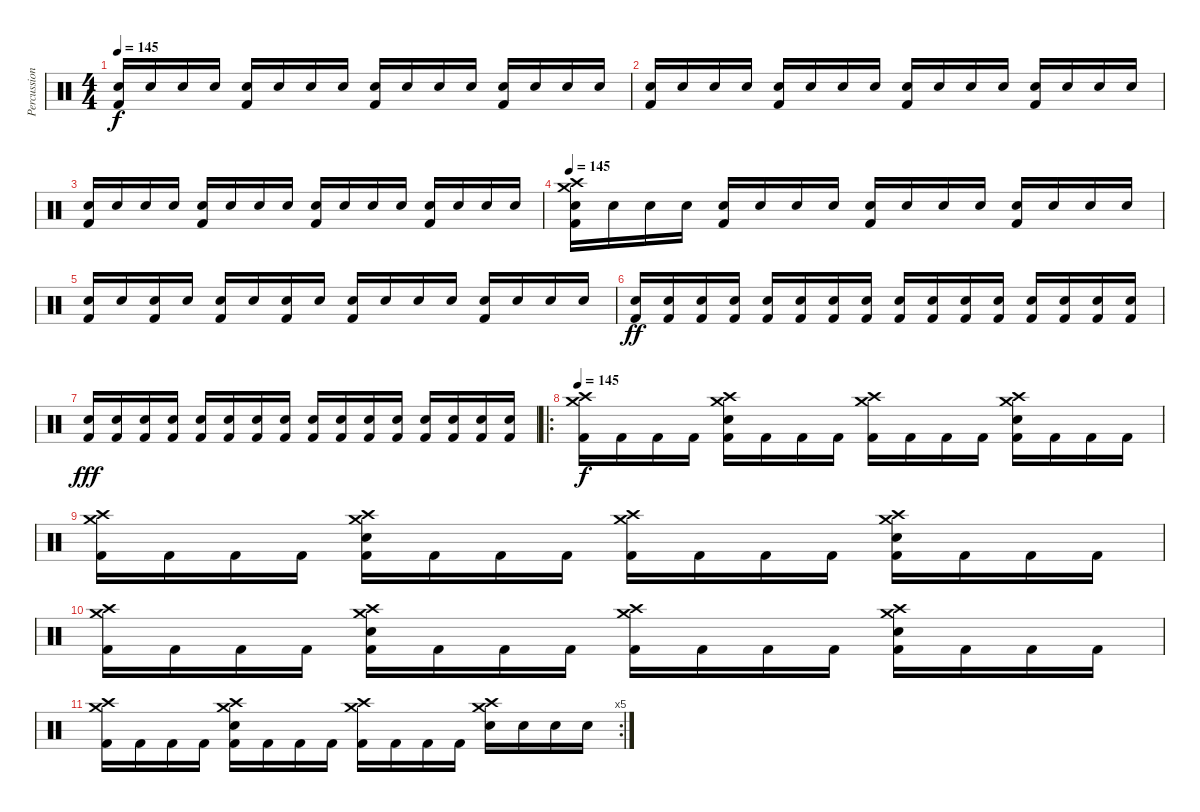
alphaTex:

\track ("Percussion" "Percussion") {instrument percussion}
\staff {score}
\articulation defaults
\ts (4 4)
\tempo 145
\clef neutral
\ks c
("Snare (hit) 2" "Kick (hit) 2").16{dy f} "Snare (hit) 2".16 "Snare (hit) 2".16 "Snare (hit) 2".16 ("Snare (hit) 2" "Kick (hit) 2").16 "Snare (hit) 2".16 "Snare (hit) 2".16 "Snare (hit) 2".16 ("Snare (hit) 2" "Kick (hit) 2").16 "Snare (hit) 2".16 "Snare (hit) 2".16 "Snare (hit) 2".16 ("Snare (hit) 2" "Kick (hit) 2").16 "Snare (hit) 2".16 "Snare (hit) 2".16 "Snare (hit) 2".16 |
("Snare (hit) 2" "Kick (hit) 2").16 "Snare (hit) 2".16 "Snare (hit) 2".16 "Snare (hit) 2".16 ("Snare (hit) 2" "Kick (hit) 2").16 "Snare (hit) 2".16 "Snare (hit) 2".16 "Snare (hit) 2".16 ("Snare (hit) 2" "Kick (hit) 2").16 "Snare (hit) 2".16 "Snare (hit) 2".16 "Snare (hit) 2".16 ("Snare (hit) 2" "Kick (hit) 2").16 "Snare (hit) 2".16 "Snare (hit) 2".16 "Snare (hit) 2".16 |
("Snare (hit) 2" "Kick (hit) 2").16 "Snare (hit) 2".16 "Snare (hit) 2".16 "Snare (hit) 2".16 ("Snare (hit) 2" "Kick (hit) 2").16 "Snare (hit) 2".16 "Snare (hit) 2".16 "Snare (hit) 2".16 ("Snare (hit) 2" "Kick (hit) 2").16 "Snare (hit) 2".16 "Snare (hit) 2".16 "Snare (hit) 2".16 ("Snare (hit) 2" "Kick (hit) 2").16 "Snare (hit) 2".16 "Snare (hit) 2".16 "Snare (hit) 2".16 |
\tempo 145
("Crash high (hit)" "Crash medium (hit)" "Snare (hit) 2" "Kick (hit) 2").16 "Snare (hit) 2".16 "Snare (hit) 2".16 "Snare (hit) 2".16 ("Snare (hit) 2" "Kick (hit) 2").16 "Snare (hit) 2".16 "Snare (hit) 2".16 "Snare (hit) 2".16 ("Snare (hit) 2" "Kick (hit) 2").16 "Snare (hit) 2".16 "Snare (hit) 2".16 "Snare (hit) 2".16 ("Snare (hit) 2" "Kick (hit) 2").16 "Snare (hit) 2".16 "Snare (hit) 2".16 "Snare (hit) 2".16 |
("Snare (hit) 2" "Kick (hit) 2").16 "Snare (hit) 2".16 ("Snare (hit) 2" "Kick (hit) 2").16 "Snare (hit) 2".16 ("Snare (hit) 2" "Kick (hit) 2").16 "Snare (hit) 2".16 ("Snare (hit) 2" "Kick (hit) 2").16 "Snare (hit) 2".16 ("Snare (hit) 2" "Kick (hit) 2").16 "Snare (hit) 2".16 "Snare (hit) 2".16 "Snare (hit) 2".16 ("Snare (hit) 2" "Kick (hit) 2").16 "Snare (hit) 2".16 "Snare (hit) 2".16 "Snare (hit) 2".16 |
("Snare (hit) 2" "Kick (hit) 2").16{dy ff} ("Snare (hit) 2" "Kick (hit) 2").16 ("Snare (hit) 2" "Kick (hit) 2").16 ("Snare (hit) 2" "Kick (hit) 2").16 ("Snare (hit) 2" "Kick (hit) 2").16 ("Snare (hit) 2" "Kick (hit) 2").16 ("Snare (hit) 2" "Kick (hit) 2").16 ("Snare (hit) 2" "Kick (hit) 2").16 ("Snare (hit) 2" "Kick (hit) 2").16 ("Snare (hit) 2" "Kick (hit) 2").16 ("Snare (hit) 2" "Kick (hit) 2").16 ("Snare (hit) 2" "Kick (hit) 2").16 ("Snare (hit) 2" "Kick (hit) 2").16 ("Snare (hit) 2" "Kick (hit) 2").16 ("Snare (hit) 2" "Kick (hit) 2").16 ("Snare (hit) 2" "Kick (hit) 2").16 |
("Snare (hit) 2" "Kick (hit) 2").16{dy fff} ("Snare (hit) 2" "Kick (hit) 2").16 ("Snare (hit) 2" "Kick (hit) 2").16 ("Snare (hit) 2" "Kick (hit) 2").16 ("Snare (hit) 2" "Kick (hit) 2").16 ("Snare (hit) 2" "Kick (hit) 2").16 ("Snare (hit) 2" "Kick (hit) 2").16 ("Snare (hit) 2" "Kick (hit) 2").16 ("Snare (hit) 2" "Kick (hit) 2").16 ("Snare (hit) 2" "Kick (hit) 2").16 ("Snare (hit) 2" "Kick (hit) 2").16 ("Snare (hit) 2" "Kick (hit) 2").16 ("Snare (hit) 2" "Kick (hit) 2").16 ("Snare (hit) 2" "Kick (hit) 2").16 ("Snare (hit) 2" "Kick (hit) 2").16 ("Snare (hit) 2" "Kick (hit) 2").16 |
\ro
\tempo 145
("Crash high (hit)" "Crash medium (hit)" "Kick (hit) 2").16{dy f} "Kick (hit) 2".16 "Kick (hit) 2".16 "Kick (hit) 2".16 ("Crash high (hit)" "Crash medium (hit)" "Snare (hit) 2" "Kick (hit) 2").16 "Kick (hit) 2".16 "Kick (hit) 2".16 "Kick (hit) 2".16 ("Crash high (hit)" "Crash medium (hit)" "Kick (hit) 2").16 "Kick (hit) 2".16 "Kick (hit) 2".16 "Kick (hit) 2".16 ("Crash high (hit)" "Crash medium (hit)" "Snare (hit) 2" "Kick (hit) 2").16 "Kick (hit) 2".16 "Kick (hit) 2".16 "Kick (hit) 2".16 |
("Crash high (hit)" "Crash medium (hit)" "Kick (hit) 2").16 "Kick (hit) 2".16 "Kick (hit) 2".16 "Kick (hit) 2".16 ("Crash high (hit)" "Crash medium (hit)" "Snare (hit) 2" "Kick (hit) 2").16 "Kick (hit) 2".16 "Kick (hit) 2".16 "Kick (hit) 2".16 ("Crash high (hit)" "Crash medium (hit)" "Kick (hit) 2").16 "Kick (hit) 2".16 "Kick (hit) 2".16 "Kick (hit) 2".16 ("Crash high (hit)" "Crash medium (hit)" "Snare (hit) 2" "Kick (hit) 2").16 "Kick (hit) 2".16 "Kick (hit) 2".16 "Kick (hit) 2".16 |
("Crash high (hit)" "Crash medium (hit)" "Kick (hit) 2").16 "Kick (hit) 2".16 "Kick (hit) 2".16 "Kick (hit) 2".16 ("Crash high (hit)" "Crash medium (hit)" "Snare (hit) 2" "Kick (hit) 2").16 "Kick (hit) 2".16 "Kick (hit) 2".16 "Kick (hit) 2".16 ("Crash high (hit)" "Crash medium (hit)" "Kick (hit) 2").16 "Kick (hit) 2".16 "Kick (hit) 2".16 "Kick (hit) 2".16 ("Crash high (hit)" "Crash medium (hit)" "Snare (hit) 2" "Kick (hit) 2").16 "Kick (hit) 2".16 "Kick (hit) 2".16 "Kick (hit) 2".16 |
\rc 5
("Crash high (hit)" "Crash medium (hit)" "Kick (hit) 2").16 "Kick (hit) 2".16 "Kick (hit) 2".16 "Kick (hit) 2".16 ("Crash high (hit)" "Crash medium (hit)" "Snare (hit) 2" "Kick (hit) 2").16 "Kick (hit) 2".16 "Kick (hit) 2".16 "Kick (hit) 2".16 ("Crash high (hit)" "Crash medium (hit)" "Kick (hit) 2").16 "Kick (hit) 2".16 "Kick (hit) 2".16 "Kick (hit) 2".16 ("Crash high (hit)" "Crash medium (hit)" "Snare (hit) 2").16 "Snare (hit) 2".16 "Snare (hit) 2".16 "Snare (hit) 2".16
